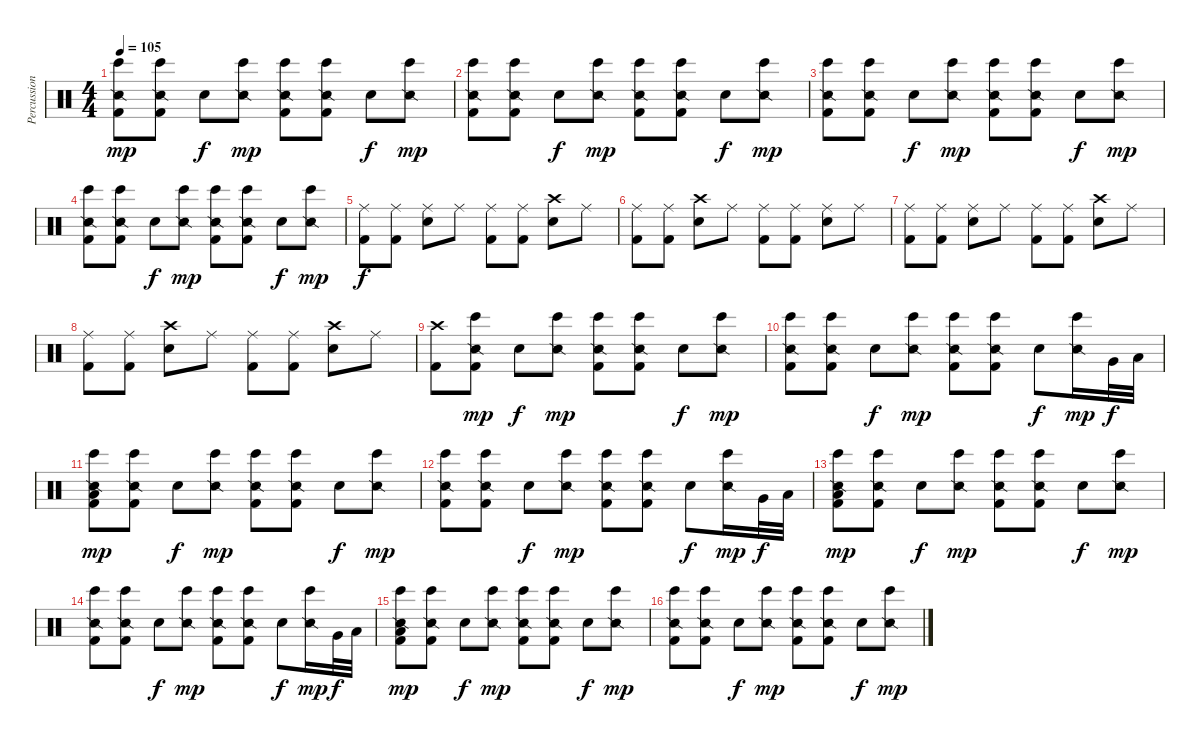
\track ("Percussioni" "Percussion") {instrument percussion}
\staff {score}
\articulation defaults
\ts (4 4)
\tempo 105
\clef neutral
\ks c
("Bongo High (hit)" "Snare (side stick) 2" "Kick (hit) 2").8{dy mp} ("Bongo High (hit)" "Snare (side stick) 2" "Kick (hit) 2").8 "Snare (hit) 2".8{dy f} ("Bongo High (hit)" "Snare (side stick) 2").8{dy mp} ("Bongo High (hit)" "Snare (side stick) 2" "Kick (hit) 2").8 ("Bongo High (hit)" "Snare (side stick) 2" "Kick (hit) 2").8 "Snare (hit) 2".8{dy f} ("Bongo High (hit)" "Snare (side stick) 2").8{dy mp} |
("Bongo High (hit)" "Snare (side stick) 2" "Kick (hit) 2").8 ("Bongo High (hit)" "Snare (side stick) 2" "Kick (hit) 2").8 "Snare (hit) 2".8{dy f} ("Bongo High (hit)" "Snare (side stick) 2").8{dy mp} ("Bongo High (hit)" "Snare (side stick) 2" "Kick (hit) 2").8 ("Bongo High (hit)" "Snare (side stick) 2" "Kick (hit) 2").8 "Snare (hit) 2".8{dy f} ("Bongo High (hit)" "Snare (side stick) 2").8{dy mp} |
("Bongo High (hit)" "Snare (side stick) 2" "Kick (hit) 2").8 ("Bongo High (hit)" "Snare (side stick) 2" "Kick (hit) 2").8 "Snare (hit) 2".8{dy f} ("Bongo High (hit)" "Snare (side stick) 2").8{dy mp} ("Bongo High (hit)" "Snare (side stick) 2" "Kick (hit) 2").8 ("Bongo High (hit)" "Snare (side stick) 2" "Kick (hit) 2").8 "Snare (hit) 2".8{dy f} ("Bongo High (hit)" "Snare (side stick) 2").8{dy mp} |
("Bongo High (hit)" "Snare (side stick) 2" "Kick (hit) 2").8 ("Bongo High (hit)" "Snare (side stick) 2" "Kick (hit) 2").8 "Snare (hit) 2".8{dy f} ("Bongo High (hit)" "Snare (side stick) 2").8{dy mp} ("Bongo High (hit)" "Snare (side stick) 2" "Kick (hit) 2").8 ("Bongo High (hit)" "Snare (side stick) 2" "Kick (hit) 2").8 "Snare (hit) 2".8{dy f} ("Bongo High (hit)" "Snare (side stick) 2").8{dy mp} |
("Ride (middle)" "Kick (hit) 2").8{dy f} ("Ride (middle)" "Kick (hit) 2").8 ("Ride (middle)" "Snare (hit) 2").8 "Ride (middle)".8 ("Ride (middle)" "Kick (hit) 2").8 ("Ride (middle)" "Kick (hit) 2").8 ("Crash high (hit)" "Snare (hit) 2").8 "Ride (middle)".8 |
("Ride (middle)" "Kick (hit) 2").8 ("Ride (middle)" "Kick (hit) 2").8 ("Crash high (hit)" "Snare (hit) 2").8 "Ride (middle)".8 ("Ride (middle)" "Kick (hit) 2").8 ("Ride (middle)" "Kick (hit) 2").8 ("Ride (middle)" "Snare (hit) 2").8 "Ride (middle)".8 |
("Ride (middle)" "Kick (hit) 2").8 ("Ride (middle)" "Kick (hit) 2").8 ("Ride (middle)" "Snare (hit) 2").8 "Ride (middle)".8 ("Ride (middle)" "Kick (hit) 2").8 ("Ride (middle)" "Kick (hit) 2").8 ("Crash high (hit)" "Snare (hit) 2").8 "Ride (middle)".8 |
("Ride (middle)" "Kick (hit) 2").8 ("Ride (middle)" "Kick (hit) 2").8 ("Crash high (hit)" "Snare (hit) 2").8 "Ride (middle)".8 ("Ride (middle)" "Kick (hit) 2").8 ("Ride (middle)" "Kick (hit) 2").8 ("Crash high (hit)" "Snare (hit) 2").8 "Ride (middle)".8 |
("Crash high (hit)" "Kick (hit) 2").8 ("Bongo High (hit)" "Snare (side stick) 2" "Kick (hit) 2").8{dy mp} "Snare (hit) 2".8{dy f} ("Bongo High (hit)" "Snare (side stick) 2").8{dy mp} ("Bongo High (hit)" "Snare (side stick) 2" "Kick (hit) 2").8 ("Bongo High (hit)" "Snare (side stick) 2" "Kick (hit) 2").8 "Snare (hit) 2".8{dy f} ("Bongo High (hit)" "Snare (side stick) 2").8{dy mp} |
("Bongo High (hit)" "Snare (side stick) 2" "Kick (hit) 2").8 ("Bongo High (hit)" "Snare (side stick) 2" "Kick (hit) 2").8 "Snare (hit) 2".8{dy f} ("Bongo High (hit)" "Snare (side stick) 2").8{dy mp} ("Bongo High (hit)" "Snare (side stick) 2" "Kick (hit) 2").8 ("Bongo High (hit)" "Snare (side stick) 2" "Kick (hit) 2").8 "Snare (hit) 2".8{dy f} ("Bongo High (hit)" "Snare (side stick) 2").16{dy mp} "Very Low Tom (hit)".32{dy f} "Low Floor Tom (hit)".32 |
("Bongo High (hit)" "Snare (side stick) 2" "Low Floor Tom (hit)" "Kick (hit) 2").8{dy mp} ("Bongo High (hit)" "Snare (side stick) 2" "Kick (hit) 2").8 "Snare (hit) 2".8{dy f} ("Bongo High (hit)" "Snare (side stick) 2").8{dy mp} ("Bongo High (hit)" "Snare (side stick) 2" "Kick (hit) 2").8 ("Bongo High (hit)" "Snare (side stick) 2" "Kick (hit) 2").8 "Snare (hit) 2".8{dy f} ("Bongo High (hit)" "Snare (side stick) 2").8{dy mp} |
("Bongo High (hit)" "Snare (side stick) 2" "Kick (hit) 2").8 ("Bongo High (hit)" "Snare (side stick) 2" "Kick (hit) 2").8 "Snare (hit) 2".8{dy f} ("Bongo High (hit)" "Snare (side stick) 2").8{dy mp} ("Bongo High (hit)" "Snare (side stick) 2" "Kick (hit) 2").8 ("Bongo High (hit)" "Snare (side stick) 2" "Kick (hit) 2").8 "Snare (hit) 2".8{dy f} ("Bongo High (hit)" "Snare (side stick) 2").16{dy mp} "Very Low Tom (hit)".32{dy f} "Low Floor Tom (hit)".32 |
("Bongo High (hit)" "Snare (side stick) 2" "Low Floor Tom (hit)" "Kick (hit) 2").8{dy mp} ("Bongo High (hit)" "Snare (side stick) 2" "Kick (hit) 2").8 "Snare (hit) 2".8{dy f} ("Bongo High (hit)" "Snare (side stick) 2").8{dy mp} ("Bongo High (hit)" "Snare (side stick) 2" "Kick (hit) 2").8 ("Bongo High (hit)" "Snare (side stick) 2" "Kick (hit) 2").8 "Snare (hit) 2".8{dy f} ("Bongo High (hit)" "Snare (side stick) 2").8{dy mp} |
("Bongo High (hit)" "Snare (side stick) 2" "Kick (hit) 2").8 ("Bongo High (hit)" "Snare (side stick) 2" "Kick (hit) 2").8 "Snare (hit) 2".8{dy f} ("Bongo High (hit)" "Snare (side stick) 2").8{dy mp} ("Bongo High (hit)" "Snare (side stick) 2" "Kick (hit) 2").8 ("Bongo High (hit)" "Snare (side stick) 2" "Kick (hit) 2").8 "Snare (hit) 2".8{dy f} ("Bongo High (hit)" "Snare (side stick) 2").16{dy mp} "Very Low Tom (hit)".32{dy f} "Low Floor Tom (hit)".32 |
("Bongo High (hit)" "Snare (side stick) 2" "Low Floor Tom (hit)" "Kick (hit) 2").8{dy mp} ("Bongo High (hit)" "Snare (side stick) 2" "Kick (hit) 2").8 "Snare (hit) 2".8{dy f} ("Bongo High (hit)" "Snare (side stick) 2").8{dy mp} ("Bongo High (hit)" "Snare (side stick) 2" "Kick (hit) 2").8 ("Bongo High (hit)" "Snare (side stick) 2" "Kick (hit) 2").8 "Snare (hit) 2".8{dy f} ("Bongo High (hit)" "Snare (side stick) 2").8{dy mp} |
("Bongo High (hit)" "Snare (side stick) 2" "Kick (hit) 2").8 ("Bongo High (hit)" "Snare (side stick) 2" "Kick (hit) 2").8 "Snare (hit) 2".8{dy f} ("Bongo High (hit)" "Snare (side stick) 2").8{dy mp} ("Bongo High (hit)" "Snare (side stick) 2" "Kick (hit) 2").8 ("Bongo High (hit)" "Snare (side stick) 2" "Kick (hit) 2").8 "Snare (hit) 2".8{dy f} ("Bongo High (hit)" "Snare (side stick) 2").8{dy mp}
